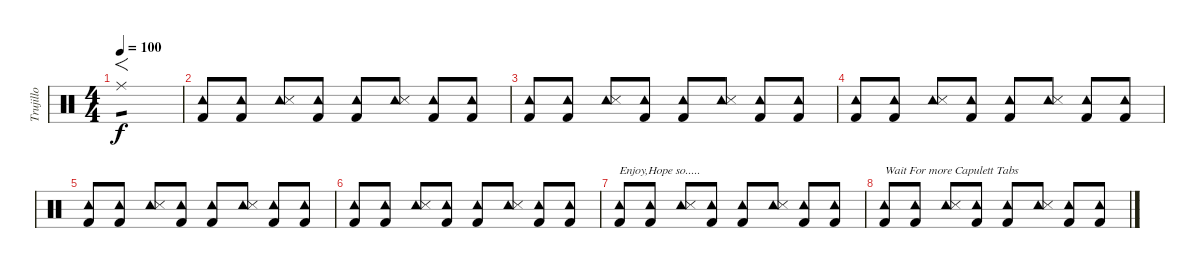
\track ("Trujillo" "Trujillo") {instrument percussion}
\staff {score}
\articulation defaults
\ts (4 4)
\tempo 100
\clef neutral
\ks c "Ride (middle)".1{f tp 1 dy f}
|
("Tambourine (hit)" "Kick (hit) 2").8 ("Tambourine (hit)" "Kick (hit) 2").8 ("Tambourine (hit)" "Snare (side stick) 3").8 ("Tambourine (hit)" "Kick (hit) 2").8 ("Tambourine (hit)" "Kick (hit) 2").8 ("Tambourine (hit)" "Snare (side stick) 3").8 ("Tambourine (hit)" "Kick (hit) 2").8 ("Tambourine (hit)" "Kick (hit) 2").8 |
("Tambourine (hit)" "Kick (hit) 2").8 ("Tambourine (hit)" "Kick (hit) 2").8 ("Tambourine (hit)" "Snare (side stick) 3").8 ("Tambourine (hit)" "Kick (hit) 2").8 ("Tambourine (hit)" "Kick (hit) 2").8 ("Tambourine (hit)" "Snare (side stick) 3").8 ("Tambourine (hit)" "Kick (hit) 2").8 ("Tambourine (hit)" "Kick (hit) 2").8 |
("Tambourine (hit)" "Kick (hit) 2").8 ("Tambourine (hit)" "Kick (hit) 2").8 ("Tambourine (hit)" "Snare (side stick) 3").8 ("Tambourine (hit)" "Kick (hit) 2").8 ("Tambourine (hit)" "Kick (hit) 2").8 ("Tambourine (hit)" "Snare (side stick) 3").8 ("Tambourine (hit)" "Kick (hit) 2").8 ("Tambourine (hit)" "Kick (hit) 2").8 |
("Tambourine (hit)" "Kick (hit) 2").8 ("Tambourine (hit)" "Kick (hit) 2").8 ("Tambourine (hit)" "Snare (side stick) 3").8 ("Tambourine (hit)" "Kick (hit) 2").8 ("Tambourine (hit)" "Kick (hit) 2").8 ("Tambourine (hit)" "Snare (side stick) 3").8 ("Tambourine (hit)" "Kick (hit) 2").8 ("Tambourine (hit)" "Kick (hit) 2").8 |
("Tambourine (hit)" "Kick (hit) 2").8 ("Tambourine (hit)" "Kick (hit) 2").8 ("Tambourine (hit)" "Snare (side stick) 3").8 ("Tambourine (hit)" "Kick (hit) 2").8 ("Tambourine (hit)" "Kick (hit) 2").8 ("Tambourine (hit)" "Snare (side stick) 3").8 ("Tambourine (hit)" "Kick (hit) 2").8 ("Tambourine (hit)" "Kick (hit) 2").8 |
("Tambourine (hit)" "Kick (hit) 2").8{txt "Enjoy,Hope so....."} ("Tambourine (hit)" "Kick (hit) 2").8 ("Tambourine (hit)" "Snare (side stick) 3").8 ("Tambourine (hit)" "Kick (hit) 2").8 ("Tambourine (hit)" "Kick (hit) 2").8 ("Tambourine (hit)" "Snare (side stick) 3").8 ("Tambourine (hit)" "Kick (hit) 2").8 ("Tambourine (hit)" "Kick (hit) 2").8 |
("Tambourine (hit)" "Kick (hit) 2").8{txt "Wait For more Capulett Tabs"} ("Tambourine (hit)" "Kick (hit) 2").8 ("Tambourine (hit)" "Snare (side stick) 3").8 ("Tambourine (hit)" "Kick (hit) 2").8 ("Tambourine (hit)" "Kick (hit) 2").8 ("Tambourine (hit)" "Snare (side stick) 3").8 ("Tambourine (hit)" "Kick (hit) 2").8 ("Tambourine (hit)" "Kick (hit) 2").8
